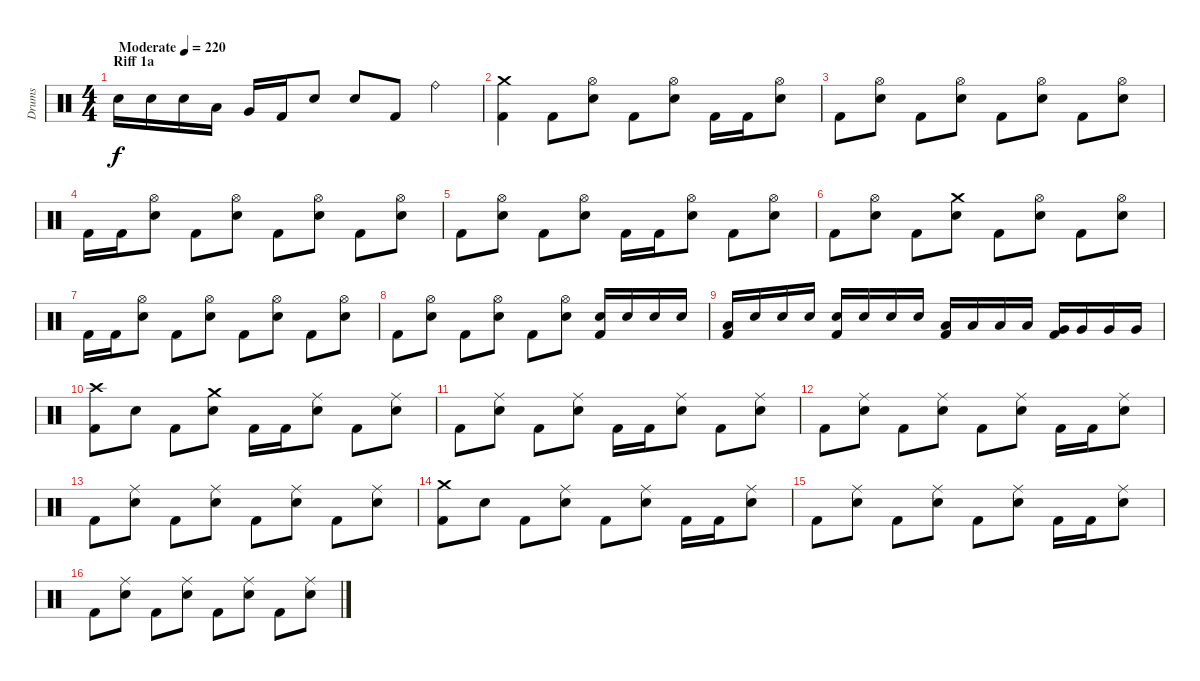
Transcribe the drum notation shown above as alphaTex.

\track ("Drums" "Drums") {instrument percussion}
\staff {score}
\articulation defaults
\ts (4 4)
\section ("" "Riff 1a")
\tempo (220 "Moderate")
\clef neutral
\ks c "Electric Snare (hit)".16{dy f} "Electric Snare (hit)".16 "Electric Snare (hit)".16 "Low Tom (hit)".16 "Very Low Tom (hit)".16 "Kick (hit) 2".16 "Electric Snare (hit)".8 "Electric Snare (hit)".8 "Kick (hit) 2".8 "Ride (bell)".4
|
("Crash medium (hit)" "Kick (hit) 2").4 "Kick (hit) 2".8 ("Hi-Hat (open)" "Electric Snare (hit)").8 "Kick (hit) 2".8 ("Hi-Hat (open)" "Electric Snare (hit)").8 "Kick (hit) 2".16 "Kick (hit) 2".16 ("Electric Snare (hit)" "Hi-Hat (open)").8 |
"Kick (hit) 2".8 ("Hi-Hat (open)" "Electric Snare (hit)").8 "Kick (hit) 2".8 ("Electric Snare (hit)" "Hi-Hat (open)").8 "Kick (hit) 2".8 ("Hi-Hat (open)" "Electric Snare (hit)").8 "Kick (hit) 2".8 ("Electric Snare (hit)" "Hi-Hat (open)").8 |
"Kick (hit) 2".16 "Kick (hit) 2".16 ("Hi-Hat (open)" "Electric Snare (hit)").8 "Kick (hit) 2".8 ("Electric Snare (hit)" "Hi-Hat (open)").8 "Kick (hit) 2".8 ("Hi-Hat (open)" "Electric Snare (hit)").8 "Kick (hit) 2".8 ("Electric Snare (hit)" "Hi-Hat (open)").8 |
"Kick (hit) 2".8 ("Hi-Hat (open)" "Electric Snare (hit)").8 "Kick (hit) 2".8 ("Electric Snare (hit)" "Hi-Hat (open)").8 "Kick (hit) 2".16 "Kick (hit) 2".16 ("Electric Snare (hit)" "Hi-Hat (open)").8 "Kick (hit) 2".8 ("Electric Snare (hit)" "Hi-Hat (open)").8 |
"Kick (hit) 2".8 ("Hi-Hat (open)" "Electric Snare (hit)").8 "Kick (hit) 2".8 ("Electric Snare (hit)" "Crash medium (hit)").8 "Kick (hit) 2".8 ("Hi-Hat (open)" "Electric Snare (hit)").8 "Kick (hit) 2".8 ("Electric Snare (hit)" "Hi-Hat (open)").8 |
"Kick (hit) 2".16 "Kick (hit) 2".16 ("Hi-Hat (open)" "Electric Snare (hit)").8 "Kick (hit) 2".8 ("Electric Snare (hit)" "Hi-Hat (open)").8 "Kick (hit) 2".8 ("Hi-Hat (open)" "Electric Snare (hit)").8 "Kick (hit) 2".8 ("Electric Snare (hit)" "Hi-Hat (open)").8 |
"Kick (hit) 2".8 ("Hi-Hat (open)" "Electric Snare (hit)").8 "Kick (hit) 2".8 ("Electric Snare (hit)" "Hi-Hat (open)").8 "Kick (hit) 2".8 ("Hi-Hat (open)" "Electric Snare (hit)").8 ("Electric Snare (hit)" "Kick (hit) 2").16 "Electric Snare (hit)".16 "Electric Snare (hit)".16 "Electric Snare (hit)".16 |
("Kick (hit) 2" "Low Tom (hit)").16 "Electric Snare (hit)".16 "Electric Snare (hit)".16 "Electric Snare (hit)".16 ("Kick (hit) 2" "Electric Snare (hit)").16 "Electric Snare (hit)".16 "Electric Snare (hit)".16 "Electric Snare (hit)".16 ("Low Tom (hit)" "Kick (hit) 2").16 "Low Tom (hit)".16 "Low Tom (hit)".16 "Low Tom (hit)".16 ("Very Low Tom (hit)" "Kick (hit) 2").16 "Very Low Tom (hit)".16 "Very Low Tom (hit)".16 "Very Low Tom (hit)".16 |
("Crash high (hit)" "Kick (hit) 2").8 "Electric Snare (hit)".8 "Kick (hit) 2".8 ("Crash medium (hit)" "Electric Snare (hit)").8 "Kick (hit) 2".16 "Kick (hit) 2".16 ("Electric Snare (hit)" "Ride (middle)").8 "Kick (hit) 2".8 ("Electric Snare (hit)" "Ride (middle)").8 |
"Kick (hit) 2".8 ("Electric Snare (hit)" "Ride (middle)").8 "Kick (hit) 2".8 ("Electric Snare (hit)" "Ride (middle)").8 "Kick (hit) 2".16 "Kick (hit) 2".16 ("Electric Snare (hit)" "Ride (middle)").8 "Kick (hit) 2".8 ("Electric Snare (hit)" "Ride (middle)").8 |
"Kick (hit) 2".8 ("Electric Snare (hit)" "Ride (middle)").8 "Kick (hit) 2".8 ("Electric Snare (hit)" "Ride (middle)").8 "Kick (hit) 2".8 ("Electric Snare (hit)" "Ride (middle)").8 "Kick (hit) 2".16 "Kick (hit) 2".16 ("Electric Snare (hit)" "Ride (middle)").8 |
"Kick (hit) 2".8 ("Electric Snare (hit)" "Ride (middle)").8 "Kick (hit) 2".8 ("Electric Snare (hit)" "Ride (middle)").8 "Kick (hit) 2".8 ("Electric Snare (hit)" "Ride (middle)").8 "Kick (hit) 2".8 ("Electric Snare (hit)" "Ride (middle)").8 |
("Kick (hit) 2" "Crash medium (hit)").8 "Electric Snare (hit)".8 "Kick (hit) 2".8 ("Electric Snare (hit)" "Ride (middle)").8 "Kick (hit) 2".8 ("Electric Snare (hit)" "Ride (middle)").8 "Kick (hit) 2".16 "Kick (hit) 2".16 ("Electric Snare (hit)" "Ride (middle)").8 |
"Kick (hit) 2".8 ("Electric Snare (hit)" "Ride (middle)").8 "Kick (hit) 2".8 ("Electric Snare (hit)" "Ride (middle)").8 "Kick (hit) 2".8 ("Electric Snare (hit)" "Ride (middle)").8 "Kick (hit) 2".16 "Kick (hit) 2".16 ("Electric Snare (hit)" "Ride (middle)").8 |
"Kick (hit) 2".8 ("Electric Snare (hit)" "Ride (middle)").8 "Kick (hit) 2".8 ("Electric Snare (hit)" "Ride (middle)").8 "Kick (hit) 2".8 ("Electric Snare (hit)" "Ride (middle)").8 "Kick (hit) 2".8 ("Electric Snare (hit)" "Ride (middle)").8
